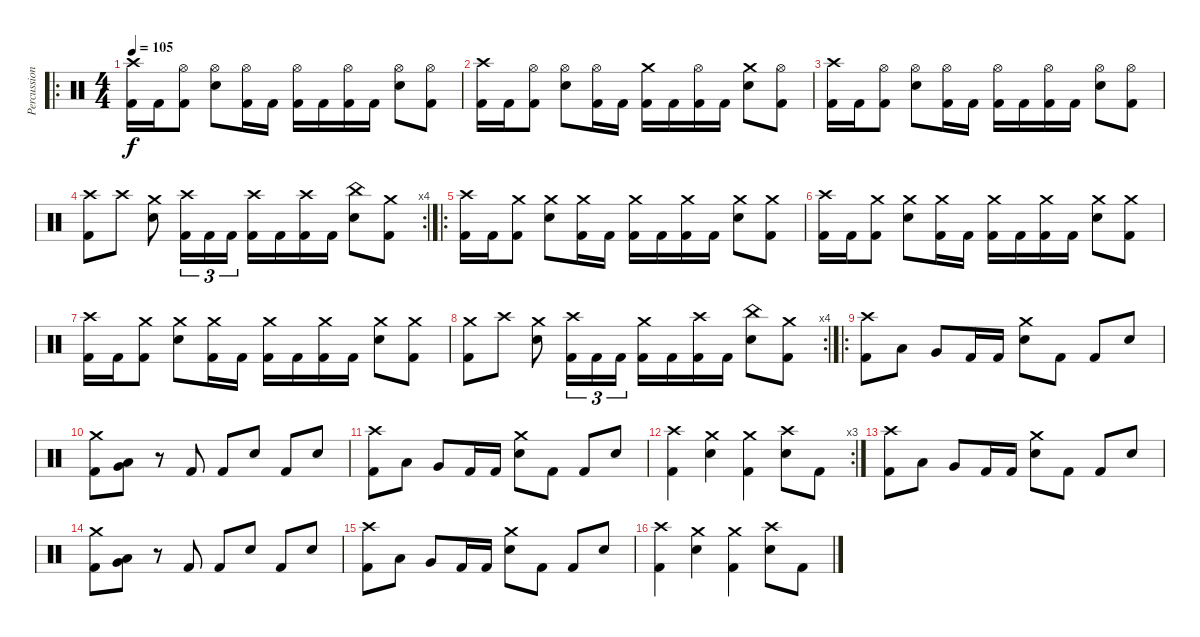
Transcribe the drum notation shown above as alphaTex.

\track ("Percussion" "Percussion") {instrument percussion}
\staff {score}
\articulation defaults
\ro
\ts (4 4)
\tempo 105
\clef neutral
\ks c
("Crash high (hit)" "Kick (hit) 2").16{dy f} "Kick (hit) 2".16 ("Hi-Hat (open)" "Kick (hit) 2").8 ("Hi-Hat (open)" "Snare (hit) 2").8 ("Hi-Hat (open)" "Kick (hit) 2").16 "Kick (hit) 2".16 ("Hi-Hat (open)" "Kick (hit) 2").16 "Kick (hit) 2".16 ("Hi-Hat (open)" "Kick (hit) 2").16 "Kick (hit) 2".16 ("Hi-Hat (open)" "Snare (hit) 2").8 ("Hi-Hat (open)" "Kick (hit) 2").8 |
("Crash high (hit)" "Kick (hit) 2").16 "Kick (hit) 2".16 ("Hi-Hat (open)" "Kick (hit) 2").8 ("Hi-Hat (open)" "Snare (hit) 2").8 ("Hi-Hat (open)" "Kick (hit) 2").16 "Kick (hit) 2".16 ("Crash medium (hit)" "Kick (hit) 2").16 "Kick (hit) 2".16 ("Hi-Hat (open)" "Kick (hit) 2").16 "Kick (hit) 2".16 ("Crash medium (hit)" "Snare (hit) 2").8 ("Hi-Hat (open)" "Kick (hit) 2").8 |
("Crash high (hit)" "Kick (hit) 2").16 "Kick (hit) 2".16 ("Hi-Hat (open)" "Kick (hit) 2").8 ("Hi-Hat (open)" "Snare (hit) 2").8 ("Hi-Hat (open)" "Kick (hit) 2").16 "Kick (hit) 2".16 ("Hi-Hat (open)" "Kick (hit) 2").16 "Kick (hit) 2".16 ("Hi-Hat (open)" "Kick (hit) 2").16 "Kick (hit) 2".16 ("Hi-Hat (open)" "Snare (hit) 2").8 ("Hi-Hat (open)" "Kick (hit) 2").8 |
\rc 4
("Crash high (hit)" "Kick (hit) 2").8 "Crash high (hit)".8 ("Crash medium (hit)" "Snare (hit) 2").8 ("Crash high (hit)" "Kick (hit) 2").16{tu (3 2)} "Kick (hit) 2".16{tu (3 2)} "Kick (hit) 2".16{tu (3 2)} ("Crash high (hit)" "Kick (hit) 2").16 "Kick (hit) 2".16 ("Crash high (hit)" "Kick (hit) 2").16 "Kick (hit) 2".16 ("China (hit)" "Snare (hit) 2").8 ("Crash medium (hit)" "Kick (hit) 2").8 |
\ro
("Crash high (hit)" "Kick (hit) 2").16 "Kick (hit) 2".16 ("Crash medium (hit)" "Kick (hit) 2").8 ("Crash medium (hit)" "Snare (hit) 2").8 ("Crash medium (hit)" "Kick (hit) 2").16 "Kick (hit) 2".16 ("Crash medium (hit)" "Kick (hit) 2").16 "Kick (hit) 2".16 ("Crash medium (hit)" "Kick (hit) 2").16 "Kick (hit) 2".16 ("Crash medium (hit)" "Snare (hit) 2").8 ("Crash medium (hit)" "Kick (hit) 2").8 |
("Crash high (hit)" "Kick (hit) 2").16 "Kick (hit) 2".16 ("Crash medium (hit)" "Kick (hit) 2").8 ("Crash medium (hit)" "Snare (hit) 2").8 ("Crash medium (hit)" "Kick (hit) 2").16 "Kick (hit) 2".16 ("Crash medium (hit)" "Kick (hit) 2").16 "Kick (hit) 2".16 ("Crash medium (hit)" "Kick (hit) 2").16 "Kick (hit) 2".16 ("Crash medium (hit)" "Snare (hit) 2").8 ("Crash medium (hit)" "Kick (hit) 2").8 |
("Crash high (hit)" "Kick (hit) 2").16 "Kick (hit) 2".16 ("Crash medium (hit)" "Kick (hit) 2").8 ("Crash medium (hit)" "Snare (hit) 2").8 ("Crash medium (hit)" "Kick (hit) 2").16 "Kick (hit) 2".16 ("Crash medium (hit)" "Kick (hit) 2").16 "Kick (hit) 2".16 ("Crash medium (hit)" "Kick (hit) 2").16 "Kick (hit) 2".16 ("Crash medium (hit)" "Snare (hit) 2").8 ("Crash medium (hit)" "Kick (hit) 2").8 |
\rc 4
("Crash medium (hit)" "Kick (hit) 2").8 "Crash high (hit)".8 ("Crash medium (hit)" "Snare (hit) 2").8 ("Crash high (hit)" "Kick (hit) 2").16{tu (3 2)} "Kick (hit) 2".16{tu (3 2)} "Kick (hit) 2".16{tu (3 2)} ("Crash medium (hit)" "Kick (hit) 2").16 "Kick (hit) 2".16 ("Crash high (hit)" "Kick (hit) 2").16 "Kick (hit) 2".16 ("China (hit)" "Snare (hit) 2").8 ("Crash medium (hit)" "Kick (hit) 2").8 |
\ro
("Crash high (hit)" "Kick (hit) 2").8 "Low Tom (hit)".8 "Very Low Tom (hit)".8 "Kick (hit) 2".16 "Kick (hit) 2".16 ("Crash medium (hit)" "Snare (hit) 2").8 "Kick (hit) 2".8 "Kick (hit) 2".8 "Snare (hit) 2".8 |
("Crash medium (hit)" "Kick (hit) 2").8 ("Low Tom (hit)" "Very Low Tom (hit)").8 r.8 "Kick (hit) 2".8 "Kick (hit) 2".8 "Snare (hit) 2".8 "Kick (hit) 2".8 "Snare (hit) 2".8 |
("Crash high (hit)" "Kick (hit) 2").8 "Low Tom (hit)".8 "Very Low Tom (hit)".8 "Kick (hit) 2".16 "Kick (hit) 2".16 ("Crash medium (hit)" "Snare (hit) 2").8 "Kick (hit) 2".8 "Kick (hit) 2".8 "Snare (hit) 2".8 |
\rc 3
("Crash high (hit)" "Kick (hit) 2").4 ("Crash medium (hit)" "Snare (hit) 2").4 ("Crash medium (hit)" "Kick (hit) 2").4 ("Crash high (hit)" "Snare (hit) 2").8 "Kick (hit) 2".8 |
("Crash high (hit)" "Kick (hit) 2").8 "Low Tom (hit)".8 "Very Low Tom (hit)".8 "Kick (hit) 2".16 "Kick (hit) 2".16 ("Crash medium (hit)" "Snare (hit) 2").8 "Kick (hit) 2".8 "Kick (hit) 2".8 "Snare (hit) 2".8 |
("Crash medium (hit)" "Kick (hit) 2").8 ("Low Tom (hit)" "Very Low Tom (hit)").8 r.8 "Kick (hit) 2".8 "Kick (hit) 2".8 "Snare (hit) 2".8 "Kick (hit) 2".8 "Snare (hit) 2".8 |
("Crash high (hit)" "Kick (hit) 2").8 "Low Tom (hit)".8 "Very Low Tom (hit)".8 "Kick (hit) 2".16 "Kick (hit) 2".16 ("Crash medium (hit)" "Snare (hit) 2").8 "Kick (hit) 2".8 "Kick (hit) 2".8 "Snare (hit) 2".8 |
("Crash high (hit)" "Kick (hit) 2").4 ("Crash medium (hit)" "Snare (hit) 2").4 ("Crash medium (hit)" "Kick (hit) 2").4 ("Crash high (hit)" "Snare (hit) 2").8 "Kick (hit) 2".8
